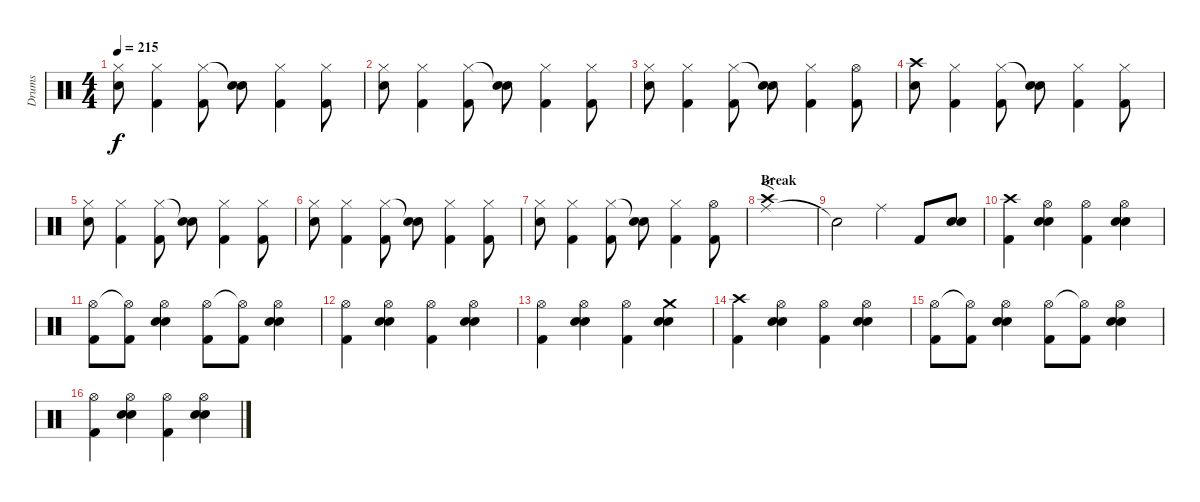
\track ("Drums" "Drums") {instrument percussion}
\staff {score}
\articulation defaults
\ts (4 4)
\tempo 215
\clef neutral
\ks c
("Hi-Hat (closed)" "Electric Snare (hit)").8{dy f} ("Hi-Hat (closed)" "Kick (hit) 2").4 ("Hi-Hat (closed)" "Kick (hit) 2").8 ("Snare (hit)"{t} "Electric Snare (hit)").8 ("Hi-Hat (closed)" "Kick (hit) 2").4 ("Hi-Hat (closed)" "Kick (hit) 2").8 |
("Hi-Hat (closed)" "Electric Snare (hit)").8 ("Hi-Hat (closed)" "Kick (hit) 2").4 ("Hi-Hat (closed)" "Kick (hit) 2").8 ("Snare (hit)"{t} "Electric Snare (hit)").8 ("Hi-Hat (closed)" "Kick (hit) 2").4 ("Hi-Hat (closed)" "Kick (hit) 2").8 |
("Hi-Hat (closed)" "Electric Snare (hit)").8 ("Hi-Hat (closed)" "Kick (hit) 2").4 ("Hi-Hat (closed)" "Kick (hit) 2").8 ("Snare (hit)"{t} "Electric Snare (hit)").8 ("Hi-Hat (closed)" "Kick (hit) 2").4 ("Hi-Hat (open)" "Kick (hit) 2").8 |
("Crash high (hit)" "Electric Snare (hit)").8 ("Hi-Hat (closed)" "Kick (hit) 2").4 ("Hi-Hat (closed)" "Kick (hit) 2").8 ("Snare (hit)"{t} "Electric Snare (hit)").8 ("Hi-Hat (closed)" "Kick (hit) 2").4 ("Hi-Hat (closed)" "Kick (hit) 2").8 |
("Hi-Hat (closed)" "Electric Snare (hit)").8 ("Hi-Hat (closed)" "Kick (hit) 2").4 ("Hi-Hat (closed)" "Kick (hit) 2").8 ("Snare (hit)"{t} "Electric Snare (hit)").8 ("Hi-Hat (closed)" "Kick (hit) 2").4 ("Hi-Hat (closed)" "Kick (hit) 2").8 |
("Hi-Hat (closed)" "Electric Snare (hit)").8 ("Hi-Hat (closed)" "Kick (hit) 2").4 ("Hi-Hat (closed)" "Kick (hit) 2").8 ("Snare (hit)"{t} "Electric Snare (hit)").8 ("Hi-Hat (closed)" "Kick (hit) 2").4 ("Hi-Hat (closed)" "Kick (hit) 2").8 |
("Hi-Hat (closed)" "Electric Snare (hit)").8 ("Hi-Hat (closed)" "Kick (hit) 2").4 ("Hi-Hat (closed)" "Kick (hit) 2").8 ("Snare (hit)"{t} "Electric Snare (hit)").8 ("Hi-Hat (closed)" "Kick (hit) 2").4 ("Hi-Hat (open)" "Kick (hit) 2").8 |
\section ("" "Break")
("Ride (middle)" "Crash high (hit)").1{f} |
"Snare (hit)"{t}.2 "Ride (middle)".4 "Kick (hit) 2".8 ("Electric Snare (hit)" "Electric Snare (hit)").8 |
("Crash high (hit)" "Kick (hit) 2").4 ("Hi-Hat (open)" "Electric Snare (hit)" "Electric Snare (hit)").4 ("Hi-Hat (open)" "Kick (hit) 2").4 ("Hi-Hat (open)" "Electric Snare (hit)" "Electric Snare (hit)").4 |
("Hi-Hat (open)" "Kick (hit) 2").8 ("Hi-Hat (open)"{t} "Kick (hit) 2").8 ("Hi-Hat (open)" "Electric Snare (hit)" "Electric Snare (hit)").4 ("Hi-Hat (open)" "Kick (hit) 2").8 ("Hi-Hat (open)"{t} "Kick (hit) 2").8 ("Hi-Hat (open)" "Electric Snare (hit)" "Electric Snare (hit)").4 |
("Hi-Hat (open)" "Kick (hit) 2").4 ("Hi-Hat (open)" "Electric Snare (hit)" "Electric Snare (hit)").4 ("Hi-Hat (open)" "Kick (hit) 2").4 ("Hi-Hat (open)" "Electric Snare (hit)" "Electric Snare (hit)").4 |
("Hi-Hat (open)" "Kick (hit) 2").4 ("Hi-Hat (open)" "Electric Snare (hit)" "Electric Snare (hit)").4 ("Hi-Hat (open)" "Kick (hit) 2").4 ("Crash medium (hit)" "Electric Snare (hit)" "Electric Snare (hit)").4 |
("Crash high (hit)" "Kick (hit) 2").4 ("Hi-Hat (open)" "Electric Snare (hit)" "Electric Snare (hit)").4 ("Hi-Hat (open)" "Kick (hit) 2").4 ("Hi-Hat (open)" "Electric Snare (hit)" "Electric Snare (hit)").4 |
("Hi-Hat (open)" "Kick (hit) 2").8 ("Hi-Hat (open)"{t} "Kick (hit) 2").8 ("Hi-Hat (open)" "Electric Snare (hit)" "Electric Snare (hit)").4 ("Hi-Hat (open)" "Kick (hit) 2").8 ("Hi-Hat (open)"{t} "Kick (hit) 2").8 ("Hi-Hat (open)" "Electric Snare (hit)" "Electric Snare (hit)").4 |
("Hi-Hat (open)" "Kick (hit) 2").4 ("Hi-Hat (open)" "Electric Snare (hit)" "Electric Snare (hit)").4 ("Hi-Hat (open)" "Kick (hit) 2").4 ("Hi-Hat (open)" "Electric Snare (hit)" "Electric Snare (hit)").4
